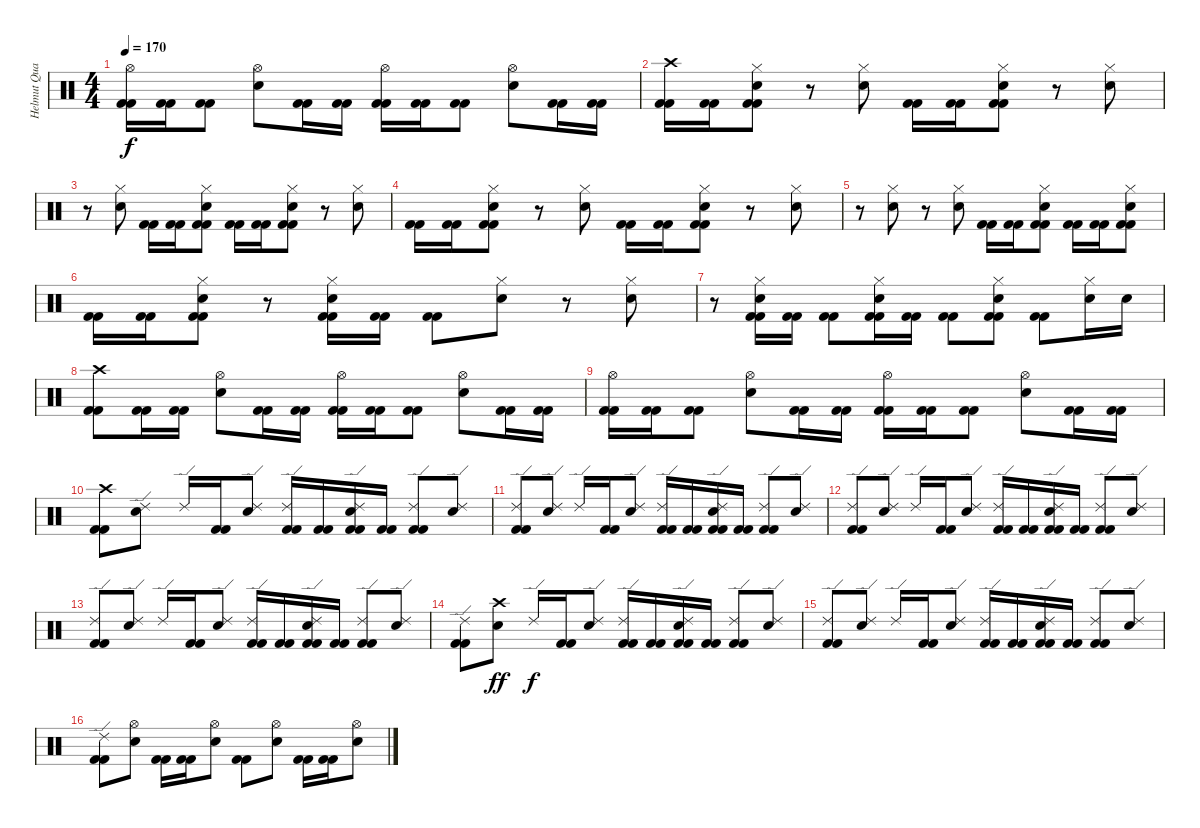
\track ("Helmut Quacken" "Helmut Qua") {instrument percussion}
\staff {score}
\articulation defaults
\ts (4 4)
\tempo 170
\clef neutral
\ks c
("Hi-Hat (open)" "Kick (hit) 2" "Kick (hit) 2").16{dy f} ("Kick (hit) 2" "Kick (hit) 2").16 ("Kick (hit) 2" "Kick (hit) 2").8 ("Hi-Hat (open)" "Electric Snare (hit)").8 ("Kick (hit) 2" "Kick (hit) 2").16 ("Kick (hit) 2" "Kick (hit) 2").16 ("Hi-Hat (open)" "Kick (hit) 2" "Kick (hit) 2").16 ("Kick (hit) 2" "Kick (hit) 2").16 ("Kick (hit) 2" "Kick (hit) 2").8 ("Hi-Hat (open)" "Electric Snare (hit)").8 ("Kick (hit) 2" "Kick (hit) 2").16 ("Kick (hit) 2" "Kick (hit) 2").16 |
("Crash high (hit)" "Kick (hit) 2" "Kick (hit) 2").16 ("Kick (hit) 2" "Kick (hit) 2").16 ("Hi-Hat (closed)" "Electric Snare (hit)" "Kick (hit) 2" "Kick (hit) 2").8 r.8 ("Hi-Hat (closed)" "Electric Snare (hit)").8 ("Kick (hit) 2" "Kick (hit) 2").16 ("Kick (hit) 2" "Kick (hit) 2").16 ("Hi-Hat (closed)" "Electric Snare (hit)" "Kick (hit) 2" "Kick (hit) 2").8 r.8 ("Hi-Hat (closed)" "Electric Snare (hit)").8 |
r.8 ("Hi-Hat (closed)" "Electric Snare (hit)").8 ("Kick (hit) 2" "Kick (hit) 2").16 ("Kick (hit) 2" "Kick (hit) 2").16 ("Hi-Hat (closed)" "Electric Snare (hit)" "Kick (hit) 2" "Kick (hit) 2").8 ("Kick (hit) 2" "Kick (hit) 2").16 ("Kick (hit) 2" "Kick (hit) 2").16 ("Hi-Hat (closed)" "Electric Snare (hit)" "Kick (hit) 2" "Kick (hit) 2").8 r.8 ("Hi-Hat (closed)" "Electric Snare (hit)").8 |
("Kick (hit) 2" "Kick (hit) 2").16 ("Kick (hit) 2" "Kick (hit) 2").16 ("Hi-Hat (closed)" "Electric Snare (hit)" "Kick (hit) 2" "Kick (hit) 2").8 r.8 ("Hi-Hat (closed)" "Electric Snare (hit)").8 ("Kick (hit) 2" "Kick (hit) 2").16 ("Kick (hit) 2" "Kick (hit) 2").16 ("Hi-Hat (closed)" "Electric Snare (hit)" "Kick (hit) 2" "Kick (hit) 2").8 r.8 ("Hi-Hat (closed)" "Electric Snare (hit)").8 |
r.8 ("Hi-Hat (closed)" "Electric Snare (hit)").8 r.8 ("Hi-Hat (closed)" "Electric Snare (hit)").8 ("Kick (hit) 2" "Kick (hit) 2").16 ("Kick (hit) 2" "Kick (hit) 2").16 ("Hi-Hat (closed)" "Electric Snare (hit)" "Kick (hit) 2" "Kick (hit) 2").8 ("Kick (hit) 2" "Kick (hit) 2").16 ("Kick (hit) 2" "Kick (hit) 2").16 ("Hi-Hat (closed)" "Electric Snare (hit)" "Kick (hit) 2" "Kick (hit) 2").8 |
("Kick (hit) 2" "Kick (hit) 2").16 ("Kick (hit) 2" "Kick (hit) 2").16 ("Hi-Hat (closed)" "Electric Snare (hit)" "Kick (hit) 2" "Kick (hit) 2").8 r.8 ("Hi-Hat (closed)" "Electric Snare (hit)" "Kick (hit) 2" "Kick (hit) 2").16 ("Kick (hit) 2" "Kick (hit) 2").16 ("Kick (hit) 2" "Kick (hit) 2").8 ("Hi-Hat (closed)" "Electric Snare (hit)").8 r.8 ("Hi-Hat (closed)" "Electric Snare (hit)").8 |
r.8 ("Hi-Hat (closed)" "Electric Snare (hit)" "Kick (hit) 2" "Kick (hit) 2").16 ("Kick (hit) 2" "Kick (hit) 2").16 ("Kick (hit) 2" "Kick (hit) 2").8 ("Hi-Hat (closed)" "Electric Snare (hit)" "Kick (hit) 2" "Kick (hit) 2").16 ("Kick (hit) 2" "Kick (hit) 2").16 ("Kick (hit) 2" "Kick (hit) 2").8 ("Hi-Hat (closed)" "Electric Snare (hit)" "Kick (hit) 2" "Kick (hit) 2").8 ("Kick (hit) 2" "Kick (hit) 2").8 ("Hi-Hat (closed)" "Electric Snare (hit)").16 "Electric Snare (hit)".16 |
("Crash high (hit)" "Kick (hit) 2" "Kick (hit) 2").8 ("Kick (hit) 2" "Kick (hit) 2").16 ("Kick (hit) 2" "Kick (hit) 2").16 ("Hi-Hat (open)" "Electric Snare (hit)").8 ("Kick (hit) 2" "Kick (hit) 2").16 ("Kick (hit) 2" "Kick (hit) 2").16 ("Hi-Hat (open)" "Kick (hit) 2" "Kick (hit) 2").16 ("Kick (hit) 2" "Kick (hit) 2").16 ("Kick (hit) 2" "Kick (hit) 2").8 ("Hi-Hat (open)" "Electric Snare (hit)").8 ("Kick (hit) 2" "Kick (hit) 2").16 ("Kick (hit) 2" "Kick (hit) 2").16 |
("Hi-Hat (open)" "Kick (hit) 2" "Kick (hit) 2").16 ("Kick (hit) 2" "Kick (hit) 2").16 ("Kick (hit) 2" "Kick (hit) 2").8 ("Hi-Hat (open)" "Electric Snare (hit)").8 ("Kick (hit) 2" "Kick (hit) 2").16 ("Kick (hit) 2" "Kick (hit) 2").16 ("Hi-Hat (open)" "Kick (hit) 2" "Kick (hit) 2").16 ("Kick (hit) 2" "Kick (hit) 2").16 ("Kick (hit) 2" "Kick (hit) 2").8 ("Hi-Hat (open)" "Electric Snare (hit)").8 ("Kick (hit) 2" "Kick (hit) 2").16 ("Kick (hit) 2" "Kick (hit) 2").16 |
("Crash high (hit)" "Kick (hit) 2" "Kick (hit) 2").8 ("Ride (edge) 2" "Electric Snare (hit)").8 "Ride (edge) 2".16 ("Kick (hit) 2" "Kick (hit) 2").16 ("Ride (edge) 2" "Electric Snare (hit)").8 ("Ride (edge) 2" "Kick (hit) 2" "Kick (hit) 2").16 ("Kick (hit) 2" "Kick (hit) 2").16 ("Ride (edge) 2" "Electric Snare (hit)" "Kick (hit) 2" "Kick (hit) 2").16 ("Kick (hit) 2" "Kick (hit) 2").16 ("Ride (edge) 2" "Kick (hit) 2" "Kick (hit) 2").8 ("Ride (edge) 2" "Electric Snare (hit)").8 |
("Ride (edge) 2" "Kick (hit) 2" "Kick (hit) 2").8 ("Ride (edge) 2" "Electric Snare (hit)").8 "Ride (edge) 2".16 ("Kick (hit) 2" "Kick (hit) 2").16 ("Ride (edge) 2" "Electric Snare (hit)").8 ("Ride (edge) 2" "Kick (hit) 2" "Kick (hit) 2").16 ("Kick (hit) 2" "Kick (hit) 2").16 ("Ride (edge) 2" "Electric Snare (hit)" "Kick (hit) 2" "Kick (hit) 2").16 ("Kick (hit) 2" "Kick (hit) 2").16 ("Ride (edge) 2" "Kick (hit) 2" "Kick (hit) 2").8 ("Ride (edge) 2" "Electric Snare (hit)").8 |
("Ride (edge) 2" "Kick (hit) 2" "Kick (hit) 2").8 ("Ride (edge) 2" "Electric Snare (hit)").8 "Ride (edge) 2".16 ("Kick (hit) 2" "Kick (hit) 2").16 ("Ride (edge) 2" "Electric Snare (hit)").8 ("Ride (edge) 2" "Kick (hit) 2" "Kick (hit) 2").16 ("Kick (hit) 2" "Kick (hit) 2").16 ("Ride (edge) 2" "Electric Snare (hit)" "Kick (hit) 2" "Kick (hit) 2").16 ("Kick (hit) 2" "Kick (hit) 2").16 ("Ride (edge) 2" "Kick (hit) 2" "Kick (hit) 2").8 ("Ride (edge) 2" "Electric Snare (hit)").8 |
("Ride (edge) 2" "Kick (hit) 2" "Kick (hit) 2").8 ("Ride (edge) 2" "Electric Snare (hit)").8 "Ride (edge) 2".16 ("Kick (hit) 2" "Kick (hit) 2").16 ("Ride (edge) 2" "Electric Snare (hit)").8 ("Ride (edge) 2" "Kick (hit) 2" "Kick (hit) 2").16 ("Kick (hit) 2" "Kick (hit) 2").16 ("Ride (edge) 2" "Electric Snare (hit)" "Kick (hit) 2" "Kick (hit) 2").16 ("Kick (hit) 2" "Kick (hit) 2").16 ("Ride (edge) 2" "Kick (hit) 2" "Kick (hit) 2").8 ("Ride (edge) 2" "Electric Snare (hit)").8 |
("Ride (edge) 2" "Kick (hit) 2" "Kick (hit) 2").8 ("Crash high (hit)" "Electric Snare (hit)").8{dy ff} "Ride (edge) 2".16{dy f} ("Kick (hit) 2" "Kick (hit) 2").16 ("Ride (edge) 2" "Electric Snare (hit)").8 ("Ride (edge) 2" "Kick (hit) 2" "Kick (hit) 2").16 ("Kick (hit) 2" "Kick (hit) 2").16 ("Ride (edge) 2" "Electric Snare (hit)" "Kick (hit) 2" "Kick (hit) 2").16 ("Kick (hit) 2" "Kick (hit) 2").16 ("Ride (edge) 2" "Kick (hit) 2" "Kick (hit) 2").8 ("Ride (edge) 2" "Electric Snare (hit)").8 |
("Ride (edge) 2" "Kick (hit) 2" "Kick (hit) 2").8 ("Ride (edge) 2" "Electric Snare (hit)").8 "Ride (edge) 2".16 ("Kick (hit) 2" "Kick (hit) 2").16 ("Ride (edge) 2" "Electric Snare (hit)").8 ("Ride (edge) 2" "Kick (hit) 2" "Kick (hit) 2").16 ("Kick (hit) 2" "Kick (hit) 2").16 ("Ride (edge) 2" "Electric Snare (hit)" "Kick (hit) 2" "Kick (hit) 2").16 ("Kick (hit) 2" "Kick (hit) 2").16 ("Ride (edge) 2" "Kick (hit) 2" "Kick (hit) 2").8 ("Ride (edge) 2" "Electric Snare (hit)").8 |
("Ride (edge) 2" "Kick (hit) 2" "Kick (hit) 2").8 ("Hi-Hat (open)" "Electric Snare (hit)").8 ("Kick (hit) 2" "Kick (hit) 2").16 ("Kick (hit) 2" "Kick (hit) 2").16 ("Hi-Hat (open)" "Electric Snare (hit)").8 ("Kick (hit) 2" "Kick (hit) 2").8 ("Hi-Hat (open)" "Electric Snare (hit)").8 ("Kick (hit) 2" "Kick (hit) 2").16 ("Kick (hit) 2" "Kick (hit) 2").16 ("Hi-Hat (open)" "Electric Snare (hit)").8
